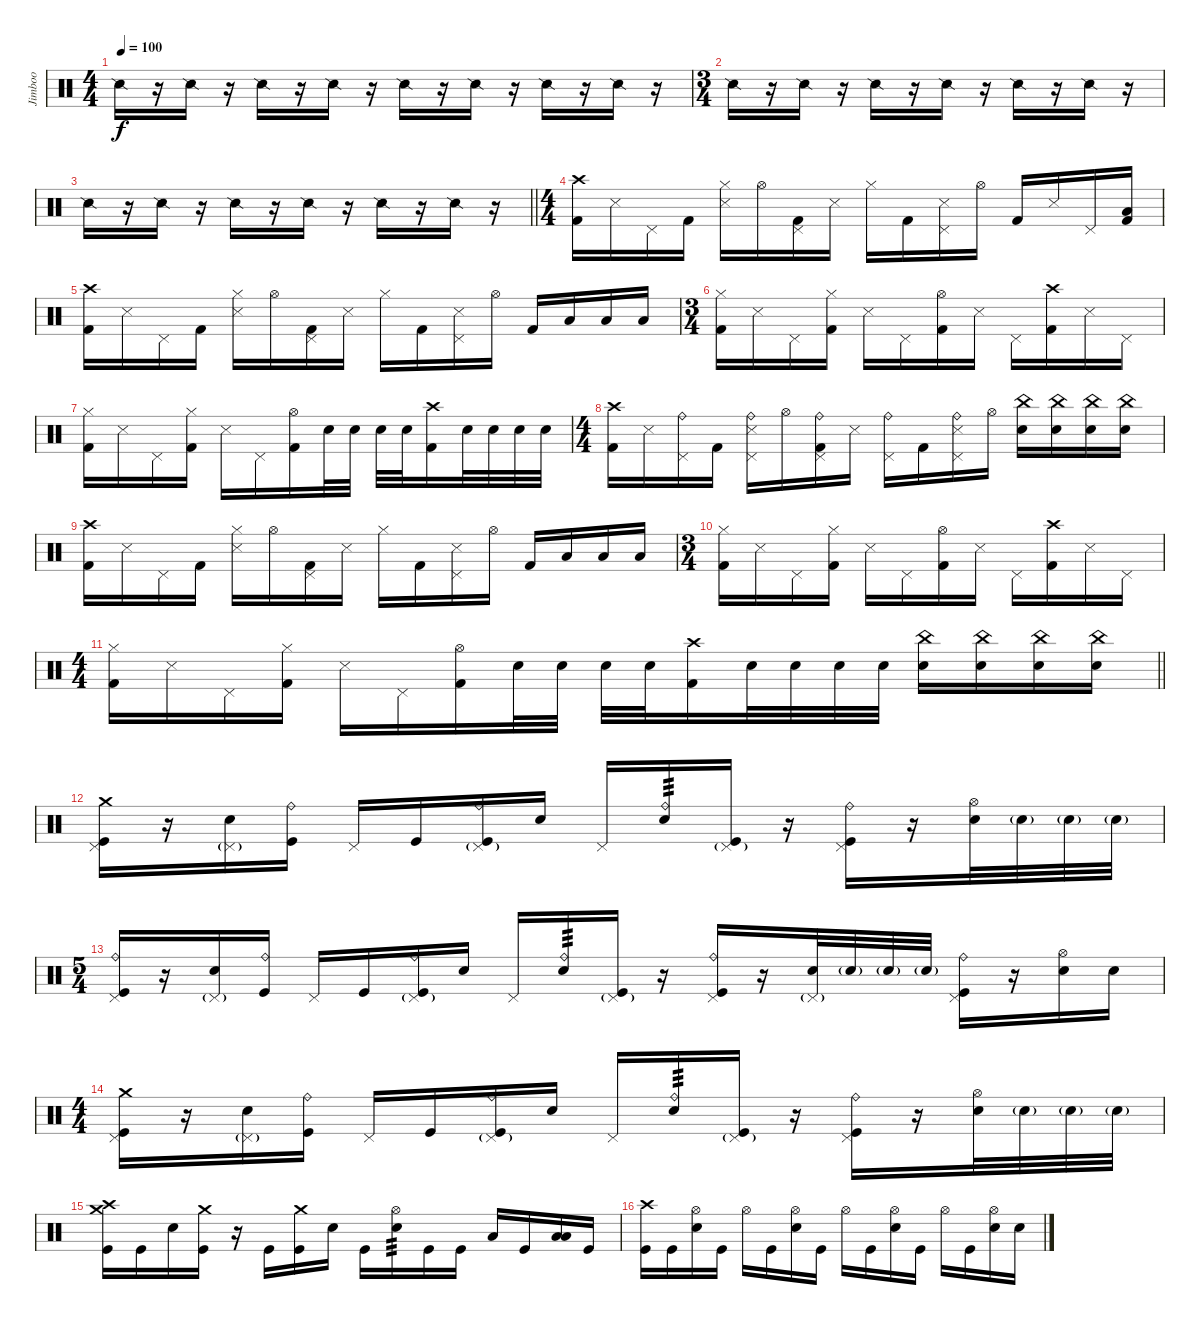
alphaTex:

\track ("Jimboo" "Jimboo") {instrument percussion}
\staff
\articulation defaults
\ts (4 4)
\tempo 100
\clef neutral
\ks c "Snare (side stick) 2".16{dy f}
r.16 "Snare (side stick) 2".16 r.16 "Snare (side stick) 2".16 r.16 "Snare (side stick) 2".16 r.16 "Snare (side stick) 2".16 r.16 "Snare (side stick) 2".16 r.16 "Snare (side stick) 2".16 r.16 "Snare (side stick) 2".16 r.16 |
\ts (3 4)
"Snare (side stick) 2".16 r.16 "Snare (side stick) 2".16 r.16 "Snare (side stick) 2".16 r.16 "Snare (side stick) 2".16 r.16 "Snare (side stick) 2".16 r.16 "Snare (side stick) 2".16 r.16 |
\barLineRight lightlight "Snare (side stick) 2".16
r.16 "Snare (side stick) 2".16 r.16 "Snare (side stick) 2".16 r.16 "Snare (side stick) 2".16 r.16 "Snare (side stick) 2".16 r.16 "Snare (side stick) 2".16 r.16 |
\ts (4 4)
\section ("" "")
("Kick (hit) 2" "Crash high (hit)").16 "Snare (side stick) 3".16 "Pedal Hi-Hat (hit)".16 "Kick (hit) 2".16 ("Snare (side stick) 3" "Hi-Hat (closed)").16 "Hi-Hat (open)".16 ("Kick (hit) 2" "Pedal Hi-Hat (hit)").16 "Snare (side stick) 3".16 "Hi-Hat (closed)".16 "Kick (hit) 2".16 ("Snare (side stick) 3" "Pedal Hi-Hat (hit)").16 "Hi-Hat (open)".16 "Kick (hit) 2".16 "Snare (side stick) 3".16 "Pedal Hi-Hat (hit)".16 ("Low Tom (hit)" "Kick (hit) 2").16 |
("Kick (hit) 2" "Crash high (hit)").16 "Snare (side stick) 3".16 "Pedal Hi-Hat (hit)".16 "Kick (hit) 2".16 ("Snare (side stick) 3" "Hi-Hat (closed)").16 "Hi-Hat (open)".16 ("Kick (hit) 2" "Pedal Hi-Hat (hit)").16 "Snare (side stick) 3".16 "Hi-Hat (closed)".16 "Kick (hit) 2".16 ("Snare (side stick) 3" "Pedal Hi-Hat (hit)").16 "Hi-Hat (open)".16 "Kick (hit) 2".16 "Low Tom (hit)".16 "Low Floor Tom (hit)".16 "Low Floor Tom (hit)".16 |
\ts (3 4)
("Kick (hit) 2" "Hi-Hat (closed)").16 "Snare (side stick) 3".16 "Pedal Hi-Hat (hit)".16 ("Kick (hit) 2" "Hi-Hat (closed)").16 "Snare (side stick) 3".16 "Pedal Hi-Hat (hit)".16 ("Kick (hit) 2" "Hi-Hat (open)").16 "Snare (side stick) 3".16 "Pedal Hi-Hat (hit)".16 ("Kick (hit) 2" "Crash high (hit)").16 "Snare (side stick) 3".16 "Pedal Hi-Hat (hit)".16 |
("Kick (hit) 2" "Hi-Hat (closed)").16 "Snare (side stick) 3".16 "Pedal Hi-Hat (hit)".16 ("Kick (hit) 2" "Hi-Hat (closed)").16 "Snare (side stick) 3".16 "Pedal Hi-Hat (hit)".16 ("Kick (hit) 2" "Hi-Hat (open)").16 "Electric Snare (hit)".32 "Electric Snare (hit)".32 "Electric Snare (hit)".32 "Electric Snare (hit)".32 ("Kick (hit) 2" "Crash high (hit)").16 "Electric Snare (hit)".32 "Electric Snare (hit)".32 "Electric Snare (hit)".32 "Electric Snare (hit)".32 |
\ts (4 4)
("Kick (hit) 2" "Crash high (hit)").16 "Snare (side stick) 3".16 ("Pedal Hi-Hat (hit)" "Ride (bell)").16 "Kick (hit) 2".16 ("Snare (side stick) 3" "Pedal Hi-Hat (hit)" "Ride (bell)").16 "Hi-Hat (open)".16 ("Kick (hit) 2" "Pedal Hi-Hat (hit)" "Ride (bell)").16 "Snare (side stick) 3".16 ("Pedal Hi-Hat (hit)" "Ride (bell)").16 "Kick (hit) 2".16 ("Snare (side stick) 3" "Pedal Hi-Hat (hit)" "Ride (bell)").16 "Hi-Hat (open)".16 ("Electric Snare (hit)" "China (hit)").16 ("Electric Snare (hit)" "China (hit)").16 ("Electric Snare (hit)" "China (hit)").16 ("Electric Snare (hit)" "China (hit)").16 |
("Kick (hit) 2" "Crash high (hit)").16 "Snare (side stick) 3".16 "Pedal Hi-Hat (hit)".16 "Kick (hit) 2".16 ("Snare (side stick) 3" "Hi-Hat (closed)").16 "Hi-Hat (open)".16 ("Kick (hit) 2" "Pedal Hi-Hat (hit)").16 "Snare (side stick) 3".16 "Hi-Hat (closed)".16 "Kick (hit) 2".16 ("Snare (side stick) 3" "Pedal Hi-Hat (hit)").16 "Hi-Hat (open)".16 "Kick (hit) 2".16 "Low Tom (hit)".16 "Low Floor Tom (hit)".16 "Low Floor Tom (hit)".16 |
\ts (3 4)
("Kick (hit) 2" "Hi-Hat (closed)").16 "Snare (side stick) 3".16 "Pedal Hi-Hat (hit)".16 ("Kick (hit) 2" "Hi-Hat (closed)").16 "Snare (side stick) 3".16 "Pedal Hi-Hat (hit)".16 ("Kick (hit) 2" "Hi-Hat (open)").16 "Snare (side stick) 3".16 "Pedal Hi-Hat (hit)".16 ("Kick (hit) 2" "Crash high (hit)").16 "Snare (side stick) 3".16 "Pedal Hi-Hat (hit)".16 |
\ts (4 4)
\barLineRight lightlight
("Kick (hit) 2" "Hi-Hat (closed)").16 "Snare (side stick) 3".16 "Pedal Hi-Hat (hit)".16 ("Kick (hit) 2" "Hi-Hat (closed)").16 "Snare (side stick) 3".16 "Pedal Hi-Hat (hit)".16 ("Kick (hit) 2" "Hi-Hat (open)").16 "Electric Snare (hit)".32 "Electric Snare (hit)".32 "Electric Snare (hit)".32 "Electric Snare (hit)".32 ("Kick (hit) 2" "Crash high (hit)").16 "Electric Snare (hit)".32 "Electric Snare (hit)".32 "Electric Snare (hit)".32 "Electric Snare (hit)".32 ("Electric Snare (hit)" "China (hit)").16 ("Electric Snare (hit)" "China (hit)").16 ("Electric Snare (hit)" "China (hit)").16 ("Electric Snare (hit)" "China (hit)").16 |
\section ("" "")
("Kick (hit)" "Pedal Hi-Hat (hit)" "Crash medium (hit)").16 r.16 ("Snare (hit) 2" "Pedal Hi-Hat (hit)"{g}).16 ("Kick (hit)" "Ride (bell)").16 "Pedal Hi-Hat (hit)".16 "Kick (hit)".16 ("Kick (hit)" "Pedal Hi-Hat (hit)"{g} "Ride (bell)").16 "Snare (hit) 2".16 "Pedal Hi-Hat (hit)".16 ("Snare (hit) 2" "Ride (bell)").16{tp 3} ("Kick (hit)" "Pedal Hi-Hat (hit)"{g}).16 r.16 ("Kick (hit)" "Pedal Hi-Hat (hit)" "Ride (bell)").16 r.16 ("Snare (hit) 2" "Hi-Hat (open)").32 "Snare (hit) 2"{g}.32 "Snare (hit) 2"{g}.32 "Snare (hit) 2"{g}.32 |
\ts (5 4)
("Kick (hit)" "Pedal Hi-Hat (hit)" "Ride (bell)").16 r.16 ("Snare (hit) 2" "Pedal Hi-Hat (hit)"{g}).16 ("Kick (hit)" "Ride (bell)").16 "Pedal Hi-Hat (hit)".16 "Kick (hit)".16 ("Kick (hit)" "Pedal Hi-Hat (hit)"{g} "Ride (bell)").16 "Snare (hit) 2".16 "Pedal Hi-Hat (hit)".16 ("Snare (hit) 2" "Ride (bell)").16{tp 3} ("Kick (hit)" "Pedal Hi-Hat (hit)"{g}).16 r.16 ("Kick (hit)" "Pedal Hi-Hat (hit)" "Ride (bell)").16 r.16 ("Snare (hit) 2" "Pedal Hi-Hat (hit)"{g}).32 "Snare (hit) 2"{g}.32 "Snare (hit) 2"{g}.32 "Snare (hit) 2"{g}.32 ("Kick (hit)" "Pedal Hi-Hat (hit)" "Ride (bell)").16 r.16 ("Snare (hit) 2" "Hi-Hat (open)").16 "Snare (hit) 2".16 |
\ts (4 4)
("Kick (hit)" "Pedal Hi-Hat (hit)" "Crash medium (hit)").16 r.16 ("Snare (hit) 2" "Pedal Hi-Hat (hit)"{g}).16 ("Kick (hit)" "Ride (bell)").16 "Pedal Hi-Hat (hit)".16 "Kick (hit)".16 ("Kick (hit)" "Pedal Hi-Hat (hit)"{g} "Ride (bell)").16 "Snare (hit) 2".16 "Pedal Hi-Hat (hit)".16 ("Snare (hit) 2" "Ride (bell)").16{tp 3} ("Kick (hit)" "Pedal Hi-Hat (hit)"{g}).16 r.16 ("Kick (hit)" "Pedal Hi-Hat (hit)" "Ride (bell)").16 r.16 ("Snare (hit) 2" "Hi-Hat (open)").32 "Snare (hit) 2"{g}.32 "Snare (hit) 2"{g}.32 "Snare (hit) 2"{g}.32 |
("Kick (hit)" "Crash medium (hit)" "Crash high (hit)").16 "Kick (hit)".16 "Snare (hit) 2".16 ("Kick (hit)" "Crash medium (hit)").16 r.16 "Kick (hit)".16 ("Kick (hit)" "Crash medium (hit)").16 "Snare (hit) 2".16 "Kick (hit)".16 ("Snare (hit) 2" "Hi-Hat (open)").16{tp 3} "Kick (hit)".16 "Kick (hit)".16 "Low Tom (hit)".16 "Kick (hit)".16 ("Low Tom (hit)" "Low Floor Tom (hit)").16 "Kick (hit)".16 |
("Kick (hit)" "Crash high (hit)").16 "Kick (hit)".16 ("Snare (hit) 2" "Hi-Hat (open)").16 "Kick (hit)".16 "Hi-Hat (open)".16 "Kick (hit)".16 ("Snare (hit) 2" "Hi-Hat (open)").16 "Kick (hit)".16 "Hi-Hat (open)".16 "Kick (hit)".16 ("Snare (hit) 2" "Hi-Hat (open)").16 "Kick (hit)".16 "Hi-Hat (open)".16 "Kick (hit)".16 ("Snare (hit) 2" "Hi-Hat (open)").16 "Snare (hit) 2".16
